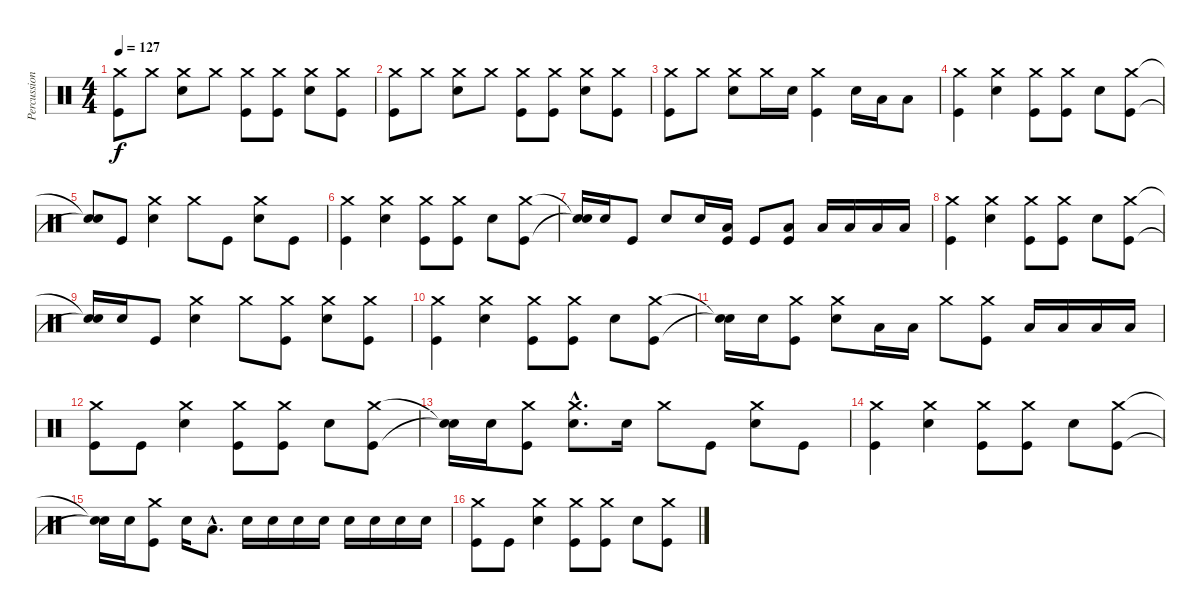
\track ("Percussion" "Percussion") {instrument percussion}
\staff {score}
\articulation defaults
\ts (4 4)
\tempo 127
\clef neutral
\ks c
("Crash medium (hit)" "Kick (hit)").8{dy f} "Crash medium (hit)".8 ("Crash medium (hit)" "Snare (hit) 2").8 "Crash medium (hit)".8 ("Crash medium (hit)" "Kick (hit)").8 ("Crash medium (hit)" "Kick (hit)").8 ("Crash medium (hit)" "Snare (hit) 2").8 ("Crash medium (hit)" "Kick (hit)").8 |
("Crash medium (hit)" "Kick (hit)").8 "Crash medium (hit)".8 ("Crash medium (hit)" "Snare (hit) 2").8 "Crash medium (hit)".8 ("Crash medium (hit)" "Kick (hit)").8 ("Crash medium (hit)" "Kick (hit)").8 ("Crash medium (hit)" "Snare (hit) 2").8 ("Crash medium (hit)" "Kick (hit)").8 |
("Crash medium (hit)" "Kick (hit)").8 "Crash medium (hit)".8 ("Crash medium (hit)" "Snare (hit) 2").8 "Crash medium (hit)".16 "Snare (hit) 2".16 ("Crash medium (hit)" "Kick (hit)").4 "Snare (hit) 2".16 "Low Tom (hit)".16 "Low Tom (hit)".8 |
("Crash medium (hit)" "Kick (hit)").4 ("Crash medium (hit)" "Snare (hit) 2").4 ("Crash medium (hit)" "Kick (hit)").8 ("Crash medium (hit)" "Kick (hit)").8 "Snare (hit) 2".8 ("Crash medium (hit)" "Kick (hit)").8 |
("Snare (hit)"{t} "Snare (hit)"{t}).8 "Kick (hit)".8 ("Crash medium (hit)" "Snare (hit) 2").4 "Crash medium (hit)".8 "Kick (hit)".8 ("Crash medium (hit)" "Snare (hit) 2").8 "Kick (hit)".8 |
("Crash medium (hit)" "Kick (hit)").4 ("Crash medium (hit)" "Snare (hit) 2").4 ("Crash medium (hit)" "Kick (hit)").8 ("Crash medium (hit)" "Kick (hit)").8 "Snare (hit) 2".8 ("Crash medium (hit)" "Kick (hit)").8 |
("Snare (hit)"{t} "Snare (hit)"{t}).16 "Snare (hit) 2".16 "Kick (hit)".8 "Snare (hit) 2".8 "Snare (hit) 2".16 ("Low Tom (hit)" "Kick (hit)").16 "Kick (hit)".8 ("Low Tom (hit)" "Kick (hit)").8 "Low Tom (hit)".16 "Low Tom (hit)".16 "Low Tom (hit)".16 "Low Tom (hit)".16 |
("Crash medium (hit)" "Kick (hit)").4 ("Crash medium (hit)" "Snare (hit) 2").4 ("Crash medium (hit)" "Kick (hit)").8 ("Crash medium (hit)" "Kick (hit)").8 "Snare (hit) 2".8 ("Crash medium (hit)" "Kick (hit)").8 |
("Snare (hit)"{t} "Snare (hit)"{t}).16 "Snare (hit) 2".16 "Kick (hit)".8 ("Crash medium (hit)" "Snare (hit) 2").4 "Crash medium (hit)".8 ("Crash medium (hit)" "Kick (hit)").8 ("Crash medium (hit)" "Snare (hit) 2").8 ("Crash medium (hit)" "Kick (hit)").8 |
("Crash medium (hit)" "Kick (hit)").4 ("Crash medium (hit)" "Snare (hit) 2").4 ("Crash medium (hit)" "Kick (hit)").8 ("Crash medium (hit)" "Kick (hit)").8 "Snare (hit) 2".8 ("Crash medium (hit)" "Kick (hit)").8 |
("Snare (hit)"{t} "Snare (hit)"{t}).16 "Snare (hit) 2".16 ("Crash medium (hit)" "Kick (hit)").8 ("Crash medium (hit)" "Snare (hit) 2").8 "Low Tom (hit)".16 "Low Tom (hit)".16 "Crash medium (hit)".8 ("Crash medium (hit)" "Kick (hit)").8 "Low Tom (hit)".16 "Low Tom (hit)".16 "Low Tom (hit)".16 "Low Tom (hit)".16 |
("Crash medium (hit)" "Kick (hit)").8 "Kick (hit)".8 ("Crash medium (hit)" "Snare (hit) 2").4 ("Crash medium (hit)" "Kick (hit)").8 ("Crash medium (hit)" "Kick (hit)").8 "Snare (hit) 2".8 ("Crash medium (hit)" "Kick (hit)").8 |
("Snare (hit)"{t} "Snare (hit)"{t}).16 "Snare (hit) 2".16 ("Crash medium (hit)" "Kick (hit)").8 ("Crash medium (hit)"{hac} "Snare (hit) 2"{hac}).8{d} "Snare (hit) 2".16 "Crash medium (hit)".8 "Kick (hit)".8 ("Crash medium (hit)" "Snare (hit) 2").8 "Kick (hit)".8 |
("Crash medium (hit)" "Kick (hit)").4 ("Crash medium (hit)" "Snare (hit) 2").4 ("Crash medium (hit)" "Kick (hit)").8 ("Crash medium (hit)" "Kick (hit)").8 "Snare (hit) 2".8 ("Crash medium (hit)" "Kick (hit)").8 |
("Snare (hit)"{t} "Snare (hit)"{t}).16 "Snare (hit) 2".16 ("Crash medium (hit)" "Kick (hit)").8 "Snare (hit) 2".16 "Low Tom (hit)"{hac}.8{d} "Snare (hit) 2".16 "Snare (hit) 2".16 "Snare (hit) 2".16 "Snare (hit) 2".16 "Snare (hit) 2".16 "Snare (hit) 2".16 "Snare (hit) 2".16 "Snare (hit) 2".16 |
("Crash medium (hit)" "Kick (hit)").8 "Kick (hit)".8 ("Crash medium (hit)" "Snare (hit) 2").4 ("Crash medium (hit)" "Kick (hit)").8 ("Crash medium (hit)" "Kick (hit)").8 "Snare (hit) 2".8 ("Crash medium (hit)" "Kick (hit)").8
